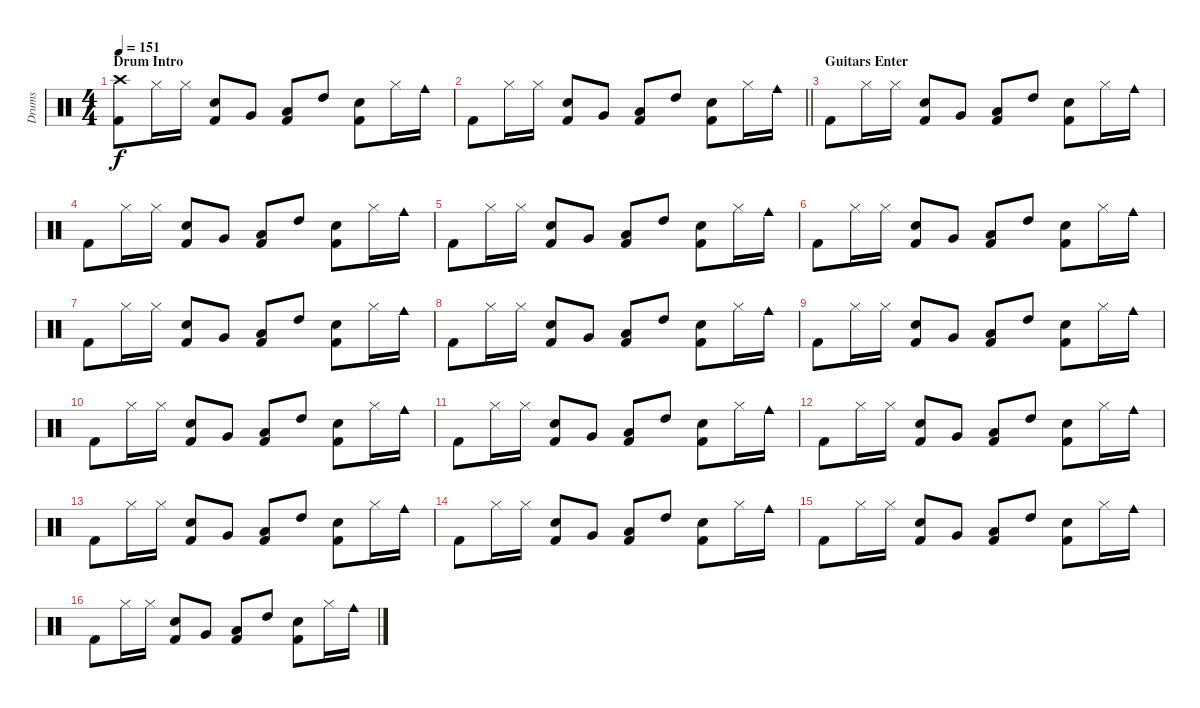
\track ("Drums" "Drums") {instrument percussion}
\staff {score}
\articulation defaults
\ts (4 4)
\section ("" "Drum Intro")
\tempo 151
\clef neutral
\ks c
("Crash high (hit)" "Kick (hit) 2").8{dy f} "Hi-Hat (closed)".16 "Hi-Hat (closed)".16 ("Electric Snare (hit)" "Kick (hit) 2").8 "Very Low Tom (hit)".8 ("Low Tom (hit)" "Kick (hit) 2").8 "High Tom (hit)".8 ("Electric Snare (hit)" "Kick (hit) 2").8 "Hi-Hat (closed)".16 "Cowbell medium (hit)".16 |
\barLineRight lightlight "Kick (hit) 2".8 "Hi-Hat (closed)".16 "Hi-Hat (closed)".16
("Electric Snare (hit)" "Kick (hit) 2").8 "Very Low Tom (hit)".8 ("Low Tom (hit)" "Kick (hit) 2").8 "High Tom (hit)".8 ("Electric Snare (hit)" "Kick (hit) 2").8 "Hi-Hat (closed)".16 "Cowbell medium (hit)".16 |
\section ("" "Guitars Enter")
"Kick (hit) 2".8 "Hi-Hat (closed)".16 "Hi-Hat (closed)".16 ("Electric Snare (hit)" "Kick (hit) 2").8 "Very Low Tom (hit)".8 ("Low Tom (hit)" "Kick (hit) 2").8 "High Tom (hit)".8 ("Electric Snare (hit)" "Kick (hit) 2").8 "Hi-Hat (closed)".16 "Cowbell medium (hit)".16 |
"Kick (hit) 2".8 "Hi-Hat (closed)".16 "Hi-Hat (closed)".16 ("Electric Snare (hit)" "Kick (hit) 2").8 "Very Low Tom (hit)".8 ("Low Tom (hit)" "Kick (hit) 2").8 "High Tom (hit)".8 ("Electric Snare (hit)" "Kick (hit) 2").8 "Hi-Hat (closed)".16 "Cowbell medium (hit)".16 |
"Kick (hit) 2".8 "Hi-Hat (closed)".16 "Hi-Hat (closed)".16 ("Electric Snare (hit)" "Kick (hit) 2").8 "Very Low Tom (hit)".8 ("Low Tom (hit)" "Kick (hit) 2").8 "High Tom (hit)".8 ("Electric Snare (hit)" "Kick (hit) 2").8 "Hi-Hat (closed)".16 "Cowbell medium (hit)".16 |
"Kick (hit) 2".8 "Hi-Hat (closed)".16 "Hi-Hat (closed)".16 ("Electric Snare (hit)" "Kick (hit) 2").8 "Very Low Tom (hit)".8 ("Low Tom (hit)" "Kick (hit) 2").8 "High Tom (hit)".8 ("Electric Snare (hit)" "Kick (hit) 2").8 "Hi-Hat (closed)".16 "Cowbell medium (hit)".16 |
"Kick (hit) 2".8 "Hi-Hat (closed)".16 "Hi-Hat (closed)".16 ("Electric Snare (hit)" "Kick (hit) 2").8 "Very Low Tom (hit)".8 ("Low Tom (hit)" "Kick (hit) 2").8 "High Tom (hit)".8 ("Electric Snare (hit)" "Kick (hit) 2").8 "Hi-Hat (closed)".16 "Cowbell medium (hit)".16 |
"Kick (hit) 2".8 "Hi-Hat (closed)".16 "Hi-Hat (closed)".16 ("Electric Snare (hit)" "Kick (hit) 2").8 "Very Low Tom (hit)".8 ("Low Tom (hit)" "Kick (hit) 2").8 "High Tom (hit)".8 ("Electric Snare (hit)" "Kick (hit) 2").8 "Hi-Hat (closed)".16 "Cowbell medium (hit)".16 |
"Kick (hit) 2".8 "Hi-Hat (closed)".16 "Hi-Hat (closed)".16 ("Electric Snare (hit)" "Kick (hit) 2").8 "Very Low Tom (hit)".8 ("Low Tom (hit)" "Kick (hit) 2").8 "High Tom (hit)".8 ("Electric Snare (hit)" "Kick (hit) 2").8 "Hi-Hat (closed)".16 "Cowbell medium (hit)".16 |
"Kick (hit) 2".8 "Hi-Hat (closed)".16 "Hi-Hat (closed)".16 ("Electric Snare (hit)" "Kick (hit) 2").8 "Very Low Tom (hit)".8 ("Low Tom (hit)" "Kick (hit) 2").8 "High Tom (hit)".8 ("Electric Snare (hit)" "Kick (hit) 2").8 "Hi-Hat (closed)".16 "Cowbell medium (hit)".16 |
"Kick (hit) 2".8 "Hi-Hat (closed)".16 "Hi-Hat (closed)".16 ("Electric Snare (hit)" "Kick (hit) 2").8 "Very Low Tom (hit)".8 ("Low Tom (hit)" "Kick (hit) 2").8 "High Tom (hit)".8 ("Electric Snare (hit)" "Kick (hit) 2").8 "Hi-Hat (closed)".16 "Cowbell medium (hit)".16 |
"Kick (hit) 2".8 "Hi-Hat (closed)".16 "Hi-Hat (closed)".16 ("Electric Snare (hit)" "Kick (hit) 2").8 "Very Low Tom (hit)".8 ("Low Tom (hit)" "Kick (hit) 2").8 "High Tom (hit)".8 ("Electric Snare (hit)" "Kick (hit) 2").8 "Hi-Hat (closed)".16 "Cowbell medium (hit)".16 |
"Kick (hit) 2".8 "Hi-Hat (closed)".16 "Hi-Hat (closed)".16 ("Electric Snare (hit)" "Kick (hit) 2").8 "Very Low Tom (hit)".8 ("Low Tom (hit)" "Kick (hit) 2").8 "High Tom (hit)".8 ("Electric Snare (hit)" "Kick (hit) 2").8 "Hi-Hat (closed)".16 "Cowbell medium (hit)".16 |
"Kick (hit) 2".8 "Hi-Hat (closed)".16 "Hi-Hat (closed)".16 ("Electric Snare (hit)" "Kick (hit) 2").8 "Very Low Tom (hit)".8 ("Low Tom (hit)" "Kick (hit) 2").8 "High Tom (hit)".8 ("Electric Snare (hit)" "Kick (hit) 2").8 "Hi-Hat (closed)".16 "Cowbell medium (hit)".16 |
"Kick (hit) 2".8 "Hi-Hat (closed)".16 "Hi-Hat (closed)".16 ("Electric Snare (hit)" "Kick (hit) 2").8 "Very Low Tom (hit)".8 ("Low Tom (hit)" "Kick (hit) 2").8 "High Tom (hit)".8 ("Electric Snare (hit)" "Kick (hit) 2").8 "Hi-Hat (closed)".16 "Cowbell medium (hit)".16 |
"Kick (hit) 2".8 "Hi-Hat (closed)".16 "Hi-Hat (closed)".16 ("Electric Snare (hit)" "Kick (hit) 2").8 "Very Low Tom (hit)".8 ("Low Tom (hit)" "Kick (hit) 2").8 "High Tom (hit)".8 ("Electric Snare (hit)" "Kick (hit) 2").8 "Hi-Hat (closed)".16 "Cowbell medium (hit)".16
